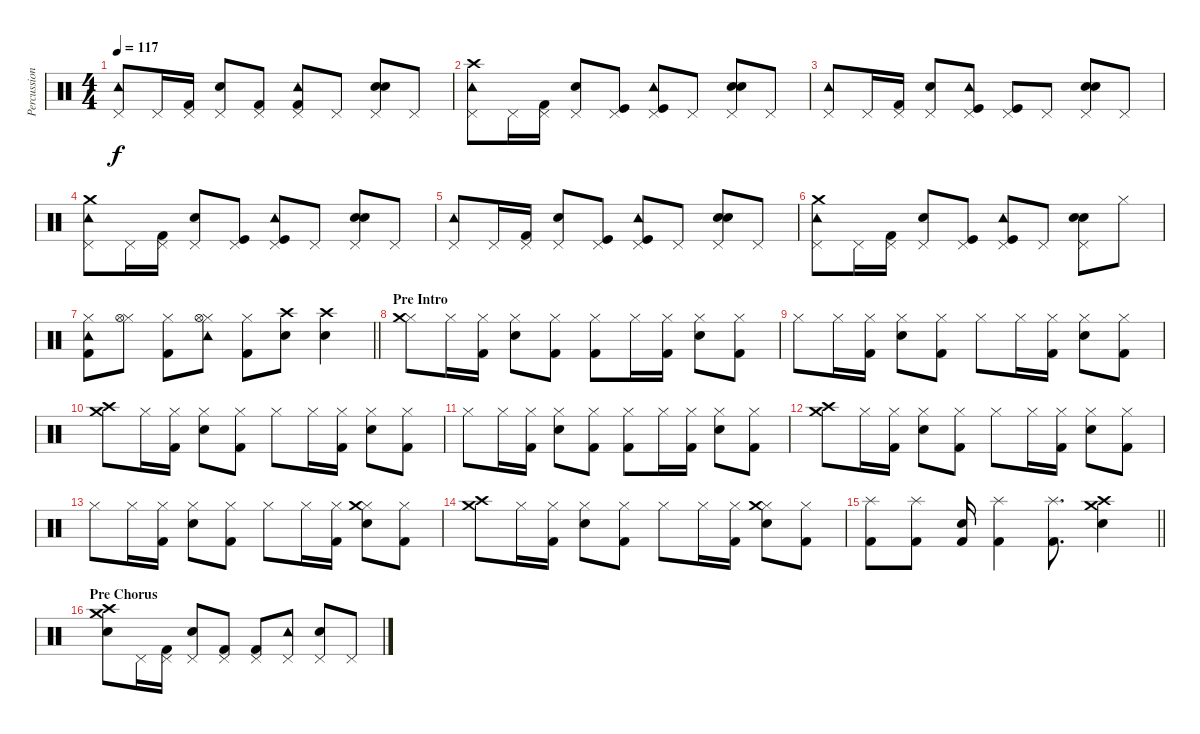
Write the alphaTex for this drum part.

\track ("Percussion" "Percussion") {instrument percussion}
\staff {score}
\articulation defaults
\ts (4 4)
\tempo 117
\clef neutral
\ks c
("Pedal Hi-Hat (hit)" "Tambourine (hit)").8{dy f} "Pedal Hi-Hat (hit)".16 ("Pedal Hi-Hat (hit)" "Kick (hit) 2").16 ("Pedal Hi-Hat (hit)" "Electric Snare (hit)").8 ("Pedal Hi-Hat (hit)" "Kick (hit) 2").8 ("Pedal Hi-Hat (hit)" "Kick (hit) 2" "Tambourine (hit)").8 "Pedal Hi-Hat (hit)".8 ("Pedal Hi-Hat (hit)" "Electric Snare (hit)" "Snare (hit) 2").8 "Pedal Hi-Hat (hit)".8 |
("Pedal Hi-Hat (hit)" "Crash high (hit)" "Tambourine (hit)").8 "Pedal Hi-Hat (hit)".16 ("Pedal Hi-Hat (hit)" "Kick (hit) 2").16 ("Pedal Hi-Hat (hit)" "Electric Snare (hit)").8 ("Pedal Hi-Hat (hit)" "Kick (hit)").8 ("Pedal Hi-Hat (hit)" "Kick (hit)" "Tambourine (hit)").8 "Pedal Hi-Hat (hit)".8 ("Pedal Hi-Hat (hit)" "Electric Snare (hit)" "Snare (hit) 2").8 "Pedal Hi-Hat (hit)".8 |
("Pedal Hi-Hat (hit)" "Tambourine (hit)").8 "Pedal Hi-Hat (hit)".16 ("Pedal Hi-Hat (hit)" "Kick (hit) 2").16 ("Pedal Hi-Hat (hit)" "Electric Snare (hit)").8 ("Pedal Hi-Hat (hit)" "Kick (hit)" "Tambourine (hit)").8 ("Pedal Hi-Hat (hit)" "Kick (hit)").8 "Pedal Hi-Hat (hit)".8 ("Pedal Hi-Hat (hit)" "Electric Snare (hit)" "Snare (hit) 2").8 "Pedal Hi-Hat (hit)".8 |
("Pedal Hi-Hat (hit)" "Crash medium (hit)" "Tambourine (hit)").8 "Pedal Hi-Hat (hit)".16 ("Pedal Hi-Hat (hit)" "Kick (hit) 2").16 ("Pedal Hi-Hat (hit)" "Electric Snare (hit)").8 ("Pedal Hi-Hat (hit)" "Kick (hit)").8 ("Pedal Hi-Hat (hit)" "Kick (hit)" "Tambourine (hit)").8 "Pedal Hi-Hat (hit)".8 ("Pedal Hi-Hat (hit)" "Electric Snare (hit)" "Snare (hit) 2").8 "Pedal Hi-Hat (hit)".8 |
("Pedal Hi-Hat (hit)" "Tambourine (hit)").8 "Pedal Hi-Hat (hit)".16 ("Pedal Hi-Hat (hit)" "Kick (hit) 2").16 ("Pedal Hi-Hat (hit)" "Electric Snare (hit)").8 ("Pedal Hi-Hat (hit)" "Kick (hit)").8 ("Pedal Hi-Hat (hit)" "Kick (hit)" "Tambourine (hit)").8 "Pedal Hi-Hat (hit)".8 ("Pedal Hi-Hat (hit)" "Electric Snare (hit)" "Snare (hit) 2").8 "Pedal Hi-Hat (hit)".8 |
("Pedal Hi-Hat (hit)" "Crash medium (hit)" "Tambourine (hit)").8 "Pedal Hi-Hat (hit)".16 ("Pedal Hi-Hat (hit)" "Kick (hit) 2").16 ("Pedal Hi-Hat (hit)" "Electric Snare (hit)").8 ("Pedal Hi-Hat (hit)" "Kick (hit)").8 ("Pedal Hi-Hat (hit)" "Kick (hit)" "Tambourine (hit)").8 "Pedal Hi-Hat (hit)".8 ("Pedal Hi-Hat (hit)" "Electric Snare (hit)" "Snare (hit) 2").8 "Hi-Hat (closed)".8 |
\barLineRight lightlight
("Hi-Hat (closed)" "Kick (hit) 2" "Tambourine (hit)").8 ("Hi-Hat (closed)" "Hi-Hat (open)").8 ("Hi-Hat (closed)" "Kick (hit) 2").8 ("Hi-Hat (closed)" "Hi-Hat (open)" "Tambourine (hit)").8 ("Hi-Hat (closed)" "Kick (hit) 2").8 ("Electric Snare (hit)" "Crash high (hit)").8 ("Electric Snare (hit)" "Crash high (hit)").4 |
\section ("" "Pre Intro")
("Hi-Hat (closed)" "Crash medium (hit)").8 "Hi-Hat (closed)".16 ("Hi-Hat (closed)" "Kick (hit) 2").16 ("Hi-Hat (closed)" "Electric Snare (hit)").8 ("Hi-Hat (closed)" "Kick (hit) 2").8 ("Hi-Hat (closed)" "Kick (hit) 2").8 "Hi-Hat (closed)".16 ("Hi-Hat (closed)" "Kick (hit) 2").16 ("Hi-Hat (closed)" "Electric Snare (hit)").8 ("Hi-Hat (closed)" "Kick (hit) 2").8 |
"Hi-Hat (closed)".8 "Hi-Hat (closed)".16 ("Hi-Hat (closed)" "Kick (hit) 2").16 ("Hi-Hat (closed)" "Electric Snare (hit)").8 ("Hi-Hat (closed)" "Kick (hit) 2").8 "Hi-Hat (closed)".8 "Hi-Hat (closed)".16 ("Hi-Hat (closed)" "Kick (hit) 2").16 ("Hi-Hat (closed)" "Electric Snare (hit)").8 ("Hi-Hat (closed)" "Kick (hit) 2").8 |
("Crash high (hit)" "Crash medium (hit)").8 "Hi-Hat (closed)".16 ("Hi-Hat (closed)" "Kick (hit) 2").16 ("Hi-Hat (closed)" "Electric Snare (hit)").8 ("Hi-Hat (closed)" "Kick (hit) 2").8 "Hi-Hat (closed)".8 "Hi-Hat (closed)".16 ("Hi-Hat (closed)" "Kick (hit) 2").16 ("Hi-Hat (closed)" "Electric Snare (hit)").8 ("Hi-Hat (closed)" "Kick (hit) 2").8 |
"Hi-Hat (closed)".8 "Hi-Hat (closed)".16 ("Hi-Hat (closed)" "Kick (hit) 2").16 ("Hi-Hat (closed)" "Electric Snare (hit)").8 ("Hi-Hat (closed)" "Kick (hit) 2").8 ("Hi-Hat (closed)" "Kick (hit) 2").8 "Hi-Hat (closed)".16 ("Hi-Hat (closed)" "Kick (hit) 2").16 ("Hi-Hat (closed)" "Electric Snare (hit)").8 ("Hi-Hat (closed)" "Kick (hit) 2").8 |
("Crash high (hit)" "Crash medium (hit)").8 "Hi-Hat (closed)".16 ("Hi-Hat (closed)" "Kick (hit) 2").16 ("Hi-Hat (closed)" "Electric Snare (hit)").8 ("Hi-Hat (closed)" "Kick (hit) 2").8 "Hi-Hat (closed)".8 "Hi-Hat (closed)".16 ("Hi-Hat (closed)" "Kick (hit) 2").16 ("Hi-Hat (closed)" "Electric Snare (hit)").8 ("Hi-Hat (closed)" "Kick (hit) 2").8 |
"Hi-Hat (closed)".8 "Hi-Hat (closed)".16 ("Hi-Hat (closed)" "Kick (hit) 2").16 ("Hi-Hat (closed)" "Electric Snare (hit)").8 ("Hi-Hat (closed)" "Kick (hit) 2").8 "Hi-Hat (closed)".8 "Hi-Hat (closed)".16 ("Hi-Hat (closed)" "Kick (hit) 2").16 ("Hi-Hat (closed)" "Electric Snare (hit)" "Crash medium (hit)").8 ("Hi-Hat (closed)" "Kick (hit) 2").8 |
("Crash high (hit)" "Crash medium (hit)").8 "Hi-Hat (closed)".16 ("Hi-Hat (closed)" "Kick (hit) 2").16 ("Hi-Hat (closed)" "Electric Snare (hit)").8 ("Hi-Hat (closed)" "Kick (hit) 2").8 "Hi-Hat (closed)".8 "Hi-Hat (closed)".16 ("Hi-Hat (closed)" "Kick (hit) 2").16 ("Hi-Hat (closed)" "Electric Snare (hit)" "Crash medium (hit)").8 ("Hi-Hat (closed)" "Kick (hit) 2").8 |
\barLineRight lightlight
("Splash (hit)" "Kick (hit) 2").8 ("Splash (hit)" "Kick (hit) 2").8 ("Kick (hit) 2" "Electric Snare (hit)").16 ("Splash (hit)" "Kick (hit) 2").4 ("Splash (hit)" "Kick (hit) 2").8{d} ("Crash high (hit)" "Electric Snare (hit)" "Crash medium (hit)").4 |
\section ("" "Pre Chorus")
("Crash high (hit)" "Electric Snare (hit)" "Crash medium (hit)").8 "Pedal Hi-Hat (hit)".16 ("Pedal Hi-Hat (hit)" "Kick (hit) 2").16 ("Pedal Hi-Hat (hit)" "Electric Snare (hit)").8 ("Pedal Hi-Hat (hit)" "Kick (hit) 2").8 ("Pedal Hi-Hat (hit)" "Kick (hit) 2").8 ("Pedal Hi-Hat (hit)" "Tambourine (hit)").8 ("Pedal Hi-Hat (hit)" "Electric Snare (hit)").8 "Pedal Hi-Hat (hit)".8
